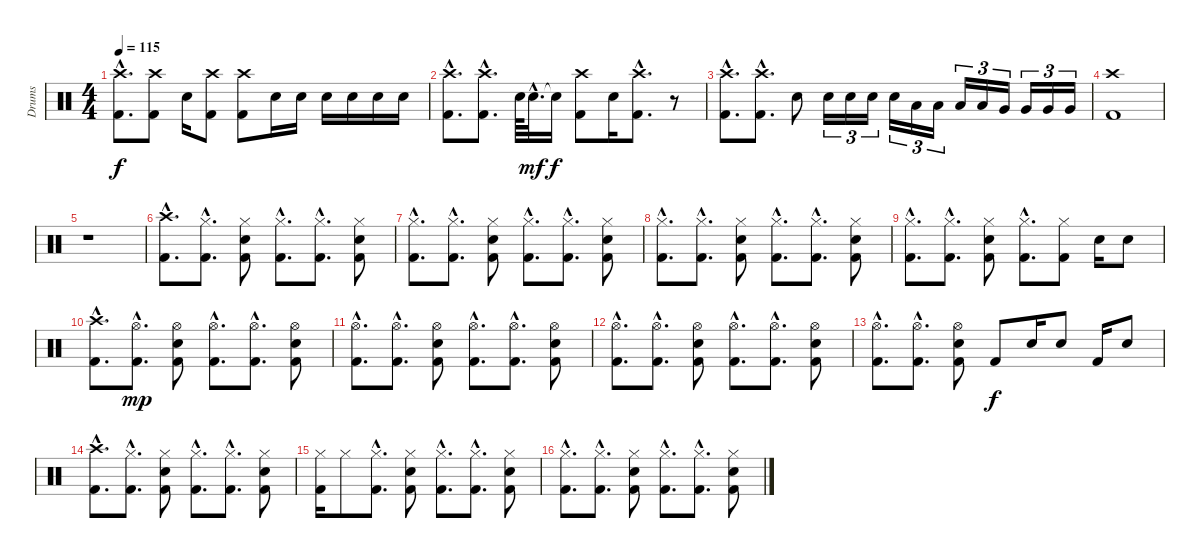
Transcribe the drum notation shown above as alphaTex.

\track ("Drums" "Drums") {instrument percussion}
\staff {score}
\articulation defaults
\ts (4 4)
\tempo 115
\clef neutral
\ks c
("Crash high (hit)"{hac} "Kick (hit) 2"{hac}).8{d dy f} ("Crash high (hit)" "Kick (hit) 2").8 "Electric Snare (hit)".16 ("Crash high (hit)" "Kick (hit) 2").8 ("Crash high (hit)" "Kick (hit) 2").8 "Electric Snare (hit)".16 "Electric Snare (hit)".16 "Electric Snare (hit)".16 "Electric Snare (hit)".16 "Electric Snare (hit)".16 "Electric Snare (hit)".16 |
("Crash high (hit)"{hac} "Kick (hit) 2"{hac}).8{d} ("Crash high (hit)"{hac} "Kick (hit) 2"{hac}).8{d} "Electric Snare (hit)".64 "Electric Snare (hit)"{hac}.32{d dy mf} "Snare (hit)"{t}.16{dy f} ("Crash high (hit)" "Kick (hit) 2").8 "Electric Snare (hit)".16 ("Crash high (hit)"{hac} "Kick (hit) 2"{hac}).8{d} r.8 |
("Crash high (hit)"{hac} "Kick (hit) 2"{hac}).8{d} ("Crash high (hit)"{hac} "Kick (hit) 2"{hac}).8{d} "Electric Snare (hit)".8 "Electric Snare (hit)".16{tu (3 2)} "Electric Snare (hit)".16{tu (3 2)} "Electric Snare (hit)".16{tu (3 2)} "Electric Snare (hit)".16{tu (3 2)} "Low Tom (hit)".16{tu (3 2)} "Low Tom (hit)".16{tu (3 2)} "Low Tom (hit)".16{tu (3 2)} "Low Tom (hit)".16{tu (3 2)} "Very Low Tom (hit)".16{tu (3 2)} "Very Low Tom (hit)".16{tu (3 2)} "Very Low Tom (hit)".16{tu (3 2)} "Very Low Tom (hit)".16{tu (3 2)} |
("Crash high (hit)" "Kick (hit) 2").1 |
r.1 |
("Crash high (hit)"{hac} "Kick (hit) 2"{hac}).8{d} ("Hi-Hat (closed)"{hac} "Kick (hit) 2"{hac}).8{d} ("Hi-Hat (closed)" "Electric Snare (hit)" "Kick (hit) 2").8 ("Hi-Hat (closed)"{hac} "Kick (hit) 2"{hac}).8{d} ("Hi-Hat (closed)"{hac} "Kick (hit) 2"{hac}).8{d} ("Hi-Hat (closed)" "Electric Snare (hit)" "Kick (hit) 2").8 |
("Hi-Hat (closed)"{hac} "Kick (hit) 2"{hac}).8{d} ("Hi-Hat (closed)"{hac} "Kick (hit) 2"{hac}).8{d} ("Hi-Hat (closed)" "Electric Snare (hit)" "Kick (hit) 2").8 ("Hi-Hat (closed)"{hac} "Kick (hit) 2"{hac}).8{d} ("Hi-Hat (closed)"{hac} "Kick (hit) 2"{hac}).8{d} ("Hi-Hat (closed)" "Electric Snare (hit)" "Kick (hit) 2").8 |
("Hi-Hat (closed)"{hac} "Kick (hit) 2"{hac}).8{d} ("Hi-Hat (closed)"{hac} "Kick (hit) 2"{hac}).8{d} ("Hi-Hat (closed)" "Electric Snare (hit)" "Kick (hit) 2").8 ("Hi-Hat (closed)"{hac} "Kick (hit) 2"{hac}).8{d} ("Hi-Hat (closed)"{hac} "Kick (hit) 2"{hac}).8{d} ("Hi-Hat (closed)" "Electric Snare (hit)" "Kick (hit) 2").8 |
("Hi-Hat (closed)"{hac} "Kick (hit) 2"{hac}).8{d} ("Hi-Hat (closed)"{hac} "Kick (hit) 2"{hac}).8{d} ("Hi-Hat (closed)" "Electric Snare (hit)" "Kick (hit) 2").8 ("Hi-Hat (closed)"{hac} "Kick (hit) 2"{hac}).8{d} ("Hi-Hat (closed)" "Kick (hit) 2").8 "Electric Snare (hit)".16 "Electric Snare (hit)".8 |
("Crash high (hit)"{hac} "Kick (hit) 2"{hac}).8{d} ("Hi-Hat (open)"{hac} "Kick (hit) 2"{hac}).8{d dy mp} ("Hi-Hat (open)" "Electric Snare (hit)" "Kick (hit) 2").8 ("Hi-Hat (open)"{hac} "Kick (hit) 2"{hac}).8{d} ("Hi-Hat (open)"{hac} "Kick (hit) 2"{hac}).8{d} ("Hi-Hat (open)" "Electric Snare (hit)" "Kick (hit) 2").8 |
("Hi-Hat (open)"{hac} "Kick (hit) 2"{hac}).8{d} ("Hi-Hat (open)"{hac} "Kick (hit) 2"{hac}).8{d} ("Hi-Hat (open)" "Electric Snare (hit)" "Kick (hit) 2").8 ("Hi-Hat (open)"{hac} "Kick (hit) 2"{hac}).8{d} ("Hi-Hat (open)"{hac} "Kick (hit) 2"{hac}).8{d} ("Hi-Hat (open)" "Electric Snare (hit)" "Kick (hit) 2").8 |
("Hi-Hat (open)"{hac} "Kick (hit) 2"{hac}).8{d} ("Hi-Hat (open)"{hac} "Kick (hit) 2"{hac}).8{d} ("Hi-Hat (open)" "Electric Snare (hit)" "Kick (hit) 2").8 ("Hi-Hat (open)"{hac} "Kick (hit) 2"{hac}).8{d} ("Hi-Hat (open)"{hac} "Kick (hit) 2"{hac}).8{d} ("Hi-Hat (open)" "Electric Snare (hit)" "Kick (hit) 2").8 |
("Hi-Hat (open)"{hac} "Kick (hit) 2"{hac}).8{d} ("Hi-Hat (open)"{hac} "Kick (hit) 2"{hac}).8{d} ("Hi-Hat (open)" "Electric Snare (hit)" "Kick (hit) 2").8 "Kick (hit) 2".8{dy f} "Electric Snare (hit)".16 "Electric Snare (hit)".8 "Kick (hit) 2".16 "Electric Snare (hit)".8 |
("Crash high (hit)"{hac} "Kick (hit) 2"{hac}).8{d} ("Hi-Hat (closed)"{hac} "Kick (hit) 2"{hac}).8{d} ("Hi-Hat (closed)" "Electric Snare (hit)" "Kick (hit) 2").8 ("Hi-Hat (closed)"{hac} "Kick (hit) 2"{hac}).8{d} ("Hi-Hat (closed)"{hac} "Kick (hit) 2"{hac}).8{d} ("Hi-Hat (closed)" "Electric Snare (hit)" "Kick (hit) 2").8 |
("Hi-Hat (closed)" "Kick (hit) 2").16 "Hi-Hat (closed)".8 ("Hi-Hat (closed)"{hac} "Kick (hit) 2"{hac}).8{d} ("Hi-Hat (closed)" "Electric Snare (hit)" "Kick (hit) 2").8 ("Hi-Hat (closed)"{hac} "Kick (hit) 2"{hac}).8{d} ("Hi-Hat (closed)"{hac} "Kick (hit) 2"{hac}).8{d} ("Hi-Hat (closed)" "Electric Snare (hit)" "Kick (hit) 2").8 |
("Hi-Hat (closed)"{hac} "Kick (hit) 2"{hac}).8{d} ("Hi-Hat (closed)"{hac} "Kick (hit) 2"{hac}).8{d} ("Hi-Hat (closed)" "Electric Snare (hit)" "Kick (hit) 2").8 ("Hi-Hat (closed)"{hac} "Kick (hit) 2"{hac}).8{d} ("Hi-Hat (closed)"{hac} "Kick (hit) 2"{hac}).8{d} ("Hi-Hat (closed)" "Electric Snare (hit)" "Kick (hit) 2").8
